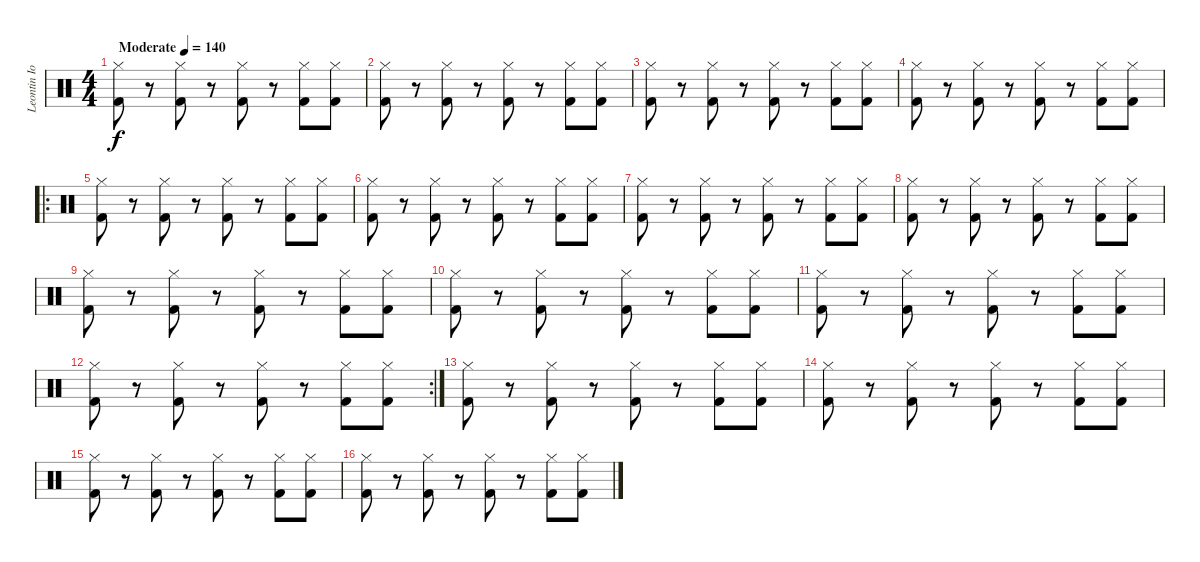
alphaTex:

\track ("Leontin Iovan" "Leontin Io") {instrument percussion}
\staff {score}
\articulation defaults
\ts (4 4)
\tempo (140 "Moderate")
\clef neutral
\ks c
("Hi-Hat (closed)" "Kick (hit) 2").8{dy f} r.8 ("Hi-Hat (closed)" "Kick (hit) 2").8 r.8 ("Hi-Hat (closed)" "Kick (hit) 2").8 r.8 ("Hi-Hat (closed)" "Kick (hit) 2").8 ("Hi-Hat (closed)" "Kick (hit) 2").8 |
("Hi-Hat (closed)" "Kick (hit) 2").8 r.8 ("Hi-Hat (closed)" "Kick (hit) 2").8 r.8 ("Hi-Hat (closed)" "Kick (hit) 2").8 r.8 ("Hi-Hat (closed)" "Kick (hit) 2").8 ("Hi-Hat (closed)" "Kick (hit) 2").8 |
("Hi-Hat (closed)" "Kick (hit) 2").8 r.8 ("Hi-Hat (closed)" "Kick (hit) 2").8 r.8 ("Hi-Hat (closed)" "Kick (hit) 2").8 r.8 ("Hi-Hat (closed)" "Kick (hit) 2").8 ("Hi-Hat (closed)" "Kick (hit) 2").8 |
("Hi-Hat (closed)" "Kick (hit) 2").8 r.8 ("Hi-Hat (closed)" "Kick (hit) 2").8 r.8 ("Hi-Hat (closed)" "Kick (hit) 2").8 r.8 ("Hi-Hat (closed)" "Kick (hit) 2").8 ("Hi-Hat (closed)" "Kick (hit) 2").8 |
\ro
("Hi-Hat (closed)" "Kick (hit) 2").8 r.8 ("Hi-Hat (closed)" "Kick (hit) 2").8 r.8 ("Hi-Hat (closed)" "Kick (hit) 2").8 r.8 ("Hi-Hat (closed)" "Kick (hit) 2").8 ("Hi-Hat (closed)" "Kick (hit) 2").8 |
("Hi-Hat (closed)" "Kick (hit) 2").8 r.8 ("Hi-Hat (closed)" "Kick (hit) 2").8 r.8 ("Hi-Hat (closed)" "Kick (hit) 2").8 r.8 ("Hi-Hat (closed)" "Kick (hit) 2").8 ("Hi-Hat (closed)" "Kick (hit) 2").8 |
("Hi-Hat (closed)" "Kick (hit) 2").8 r.8 ("Hi-Hat (closed)" "Kick (hit) 2").8 r.8 ("Hi-Hat (closed)" "Kick (hit) 2").8 r.8 ("Hi-Hat (closed)" "Kick (hit) 2").8 ("Hi-Hat (closed)" "Kick (hit) 2").8 |
("Hi-Hat (closed)" "Kick (hit) 2").8 r.8 ("Hi-Hat (closed)" "Kick (hit) 2").8 r.8 ("Hi-Hat (closed)" "Kick (hit) 2").8 r.8 ("Hi-Hat (closed)" "Kick (hit) 2").8 ("Hi-Hat (closed)" "Kick (hit) 2").8 |
("Hi-Hat (closed)" "Kick (hit) 2").8 r.8 ("Hi-Hat (closed)" "Kick (hit) 2").8 r.8 ("Hi-Hat (closed)" "Kick (hit) 2").8 r.8 ("Hi-Hat (closed)" "Kick (hit) 2").8 ("Hi-Hat (closed)" "Kick (hit) 2").8 |
("Hi-Hat (closed)" "Kick (hit) 2").8 r.8 ("Hi-Hat (closed)" "Kick (hit) 2").8 r.8 ("Hi-Hat (closed)" "Kick (hit) 2").8 r.8 ("Hi-Hat (closed)" "Kick (hit) 2").8 ("Hi-Hat (closed)" "Kick (hit) 2").8 |
("Hi-Hat (closed)" "Kick (hit) 2").8 r.8 ("Hi-Hat (closed)" "Kick (hit) 2").8 r.8 ("Hi-Hat (closed)" "Kick (hit) 2").8 r.8 ("Hi-Hat (closed)" "Kick (hit) 2").8 ("Hi-Hat (closed)" "Kick (hit) 2").8 |
\rc 2
("Hi-Hat (closed)" "Kick (hit) 2").8 r.8 ("Hi-Hat (closed)" "Kick (hit) 2").8 r.8 ("Hi-Hat (closed)" "Kick (hit) 2").8 r.8 ("Hi-Hat (closed)" "Kick (hit) 2").8 ("Hi-Hat (closed)" "Kick (hit) 2").8 |
("Hi-Hat (closed)" "Kick (hit) 2").8 r.8 ("Hi-Hat (closed)" "Kick (hit) 2").8 r.8 ("Hi-Hat (closed)" "Kick (hit) 2").8 r.8 ("Hi-Hat (closed)" "Kick (hit) 2").8 ("Hi-Hat (closed)" "Kick (hit) 2").8 |
("Hi-Hat (closed)" "Kick (hit) 2").8 r.8 ("Hi-Hat (closed)" "Kick (hit) 2").8 r.8 ("Hi-Hat (closed)" "Kick (hit) 2").8 r.8 ("Hi-Hat (closed)" "Kick (hit) 2").8 ("Hi-Hat (closed)" "Kick (hit) 2").8 |
("Hi-Hat (closed)" "Kick (hit) 2").8 r.8 ("Hi-Hat (closed)" "Kick (hit) 2").8 r.8 ("Hi-Hat (closed)" "Kick (hit) 2").8 r.8 ("Hi-Hat (closed)" "Kick (hit) 2").8 ("Hi-Hat (closed)" "Kick (hit) 2").8 |
("Hi-Hat (closed)" "Kick (hit) 2").8 r.8 ("Hi-Hat (closed)" "Kick (hit) 2").8 r.8 ("Hi-Hat (closed)" "Kick (hit) 2").8 r.8 ("Hi-Hat (closed)" "Kick (hit) 2").8 ("Hi-Hat (closed)" "Kick (hit) 2").8
